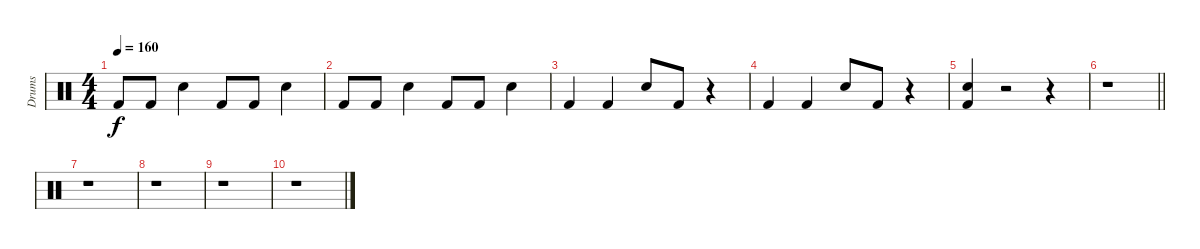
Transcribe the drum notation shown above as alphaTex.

\track ("Drums" "Drums") {instrument percussion}
\staff {score}
\articulation defaults
\ts (4 4)
\tempo 160
\clef neutral
\ks c "Kick (hit) 2".8{dy f} "Kick (hit) 2".8 "Electric Snare (hit)".4 "Kick (hit) 2".8 "Kick (hit) 2".8 "Electric Snare (hit)".4
|
"Kick (hit) 2".8 "Kick (hit) 2".8 "Electric Snare (hit)".4 "Kick (hit) 2".8 "Kick (hit) 2".8 "Electric Snare (hit)".4 |
"Kick (hit) 2".4 "Kick (hit) 2".4 "Electric Snare (hit)".8 "Kick (hit) 2".8 r.4 |
"Kick (hit) 2".4 "Kick (hit) 2".4 "Electric Snare (hit)".8 "Kick (hit) 2".8 r.4 |
("Kick (hit) 2" "Electric Snare (hit)").4 r.2 r.4 |
\barLineRight lightlight
r.1 |
r.1 |
r.1 |
r.1 |
r.1
